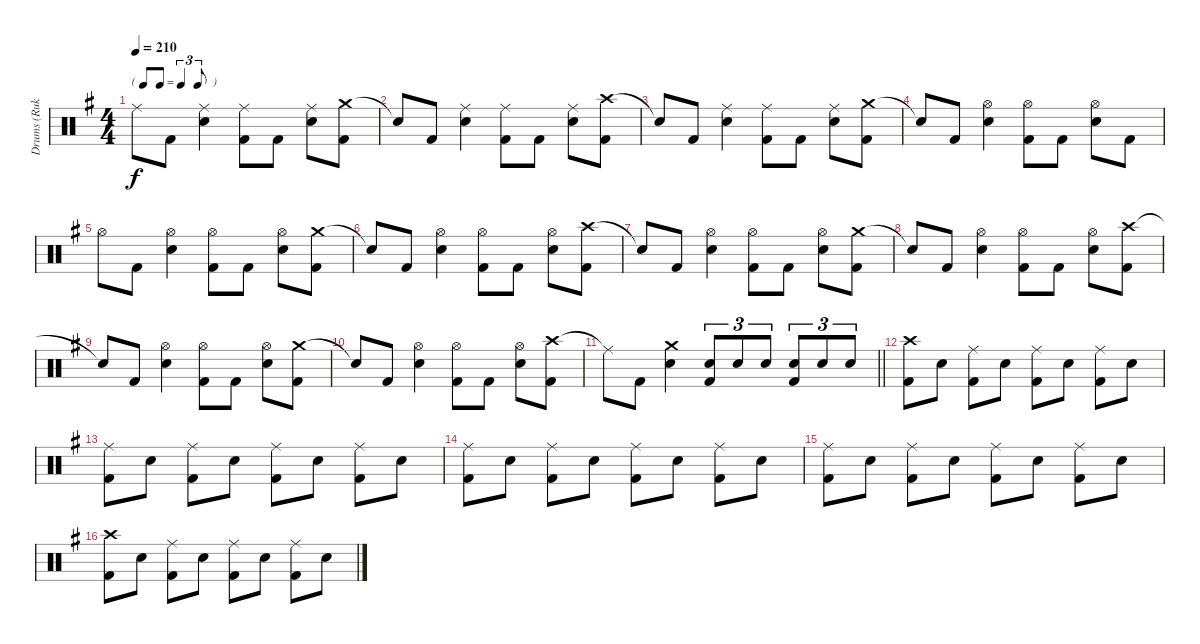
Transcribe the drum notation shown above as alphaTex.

\track ("Drums (Ruka)" "Drums (Ruk") {instrument percussion}
\staff {score}
\articulation defaults
\ts (4 4)
\tf triplet8th
\tempo 210
\clef neutral
\ks g "Ride (middle)".8{dy f} "Kick (hit) 2".8
("Ride (middle)" "Electric Snare (hit)").4 ("Ride (middle)" "Kick (hit) 2").8 "Kick (hit) 2".8 ("Ride (middle)" "Electric Snare (hit)").8 ("Crash medium (hit)" "Kick (hit) 2").8 |
"Snare (hit)"{t}.8 "Kick (hit) 2".8 ("Ride (middle)" "Electric Snare (hit)").4 ("Ride (middle)" "Kick (hit) 2").8 "Kick (hit) 2".8 ("Ride (middle)" "Electric Snare (hit)").8 ("Crash high (hit)" "Kick (hit) 2").8 |
"Snare (hit)"{t}.8 "Kick (hit) 2".8 ("Ride (middle)" "Electric Snare (hit)").4 ("Ride (middle)" "Kick (hit) 2").8 "Kick (hit) 2".8 ("Ride (middle)" "Electric Snare (hit)").8 ("Crash medium (hit)" "Kick (hit) 2").8 |
"Snare (hit)"{t}.8 "Kick (hit) 2".8 ("Hi-Hat (open)" "Electric Snare (hit)").4 ("Hi-Hat (open)" "Kick (hit) 2").8 "Kick (hit) 2".8 ("Hi-Hat (open)" "Electric Snare (hit)").8 "Kick (hit) 2".8 |
"Hi-Hat (open)".8 "Kick (hit) 2".8 ("Hi-Hat (open)" "Electric Snare (hit)").4 ("Hi-Hat (open)" "Kick (hit) 2").8 "Kick (hit) 2".8 ("Hi-Hat (open)" "Electric Snare (hit)").8 ("Crash medium (hit)" "Kick (hit) 2").8 |
"Snare (hit)"{t}.8 "Kick (hit) 2".8 ("Hi-Hat (open)" "Electric Snare (hit)").4 ("Hi-Hat (open)" "Kick (hit) 2").8 "Kick (hit) 2".8 ("Hi-Hat (open)" "Electric Snare (hit)").8 ("Crash high (hit)" "Kick (hit) 2").8 |
"Snare (hit)"{t}.8 "Kick (hit) 2".8 ("Hi-Hat (open)" "Electric Snare (hit)").4 ("Hi-Hat (open)" "Kick (hit) 2").8 "Kick (hit) 2".8 ("Hi-Hat (open)" "Electric Snare (hit)").8 ("Crash medium (hit)" "Kick (hit) 2").8 |
"Snare (hit)"{t}.8 "Kick (hit) 2".8 ("Hi-Hat (open)" "Electric Snare (hit)").4 ("Hi-Hat (open)" "Kick (hit) 2").8 "Kick (hit) 2".8 ("Hi-Hat (open)" "Electric Snare (hit)").8 ("Crash high (hit)" "Kick (hit) 2").8 |
"Snare (hit)"{t}.8 "Kick (hit) 2".8 ("Hi-Hat (open)" "Electric Snare (hit)").4 ("Hi-Hat (open)" "Kick (hit) 2").8 "Kick (hit) 2".8 ("Hi-Hat (open)" "Electric Snare (hit)").8 ("Crash medium (hit)" "Kick (hit) 2").8 |
"Snare (hit)"{t}.8 "Kick (hit) 2".8 ("Hi-Hat (open)" "Electric Snare (hit)").4 ("Hi-Hat (open)" "Kick (hit) 2").8 "Kick (hit) 2".8 ("Hi-Hat (open)" "Electric Snare (hit)").8 ("Crash high (hit)" "Kick (hit) 2").8 |
\barLineRight lightlight "Ride (middle)"{t}.8 "Kick (hit) 2".8
("Crash medium (hit)" "Electric Snare (hit)").4 ("Electric Snare (hit)" "Kick (hit) 2").8{tu (3 2)} "Electric Snare (hit)".8{tu (3 2)} "Electric Snare (hit)".8{tu (3 2)} ("Electric Snare (hit)" "Kick (hit) 2").8{tu (3 2)} "Electric Snare (hit)".8{tu (3 2)} "Electric Snare (hit)".8{tu (3 2)} |
("Crash high (hit)" "Kick (hit) 2").8 "Electric Snare (hit)".8 ("Ride (middle)" "Kick (hit) 2").8 "Electric Snare (hit)".8 ("Ride (middle)" "Kick (hit) 2").8 "Electric Snare (hit)".8 ("Ride (middle)" "Kick (hit) 2").8 "Electric Snare (hit)".8 |
("Ride (middle)" "Kick (hit) 2").8 "Electric Snare (hit)".8 ("Ride (middle)" "Kick (hit) 2").8 "Electric Snare (hit)".8 ("Ride (middle)" "Kick (hit) 2").8 "Electric Snare (hit)".8 ("Ride (middle)" "Kick (hit) 2").8 "Electric Snare (hit)".8 |
("Ride (middle)" "Kick (hit) 2").8 "Electric Snare (hit)".8 ("Ride (middle)" "Kick (hit) 2").8 "Electric Snare (hit)".8 ("Ride (middle)" "Kick (hit) 2").8 "Electric Snare (hit)".8 ("Ride (middle)" "Kick (hit) 2").8 "Electric Snare (hit)".8 |
("Ride (middle)" "Kick (hit) 2").8 "Electric Snare (hit)".8 ("Ride (middle)" "Kick (hit) 2").8 "Electric Snare (hit)".8 ("Ride (middle)" "Kick (hit) 2").8 "Electric Snare (hit)".8 ("Ride (middle)" "Kick (hit) 2").8 "Electric Snare (hit)".8 |
("Crash high (hit)" "Kick (hit) 2").8 "Electric Snare (hit)".8 ("Ride (middle)" "Kick (hit) 2").8 "Electric Snare (hit)".8 ("Ride (middle)" "Kick (hit) 2").8 "Electric Snare (hit)".8 ("Ride (middle)" "Kick (hit) 2").8 "Electric Snare (hit)".8
